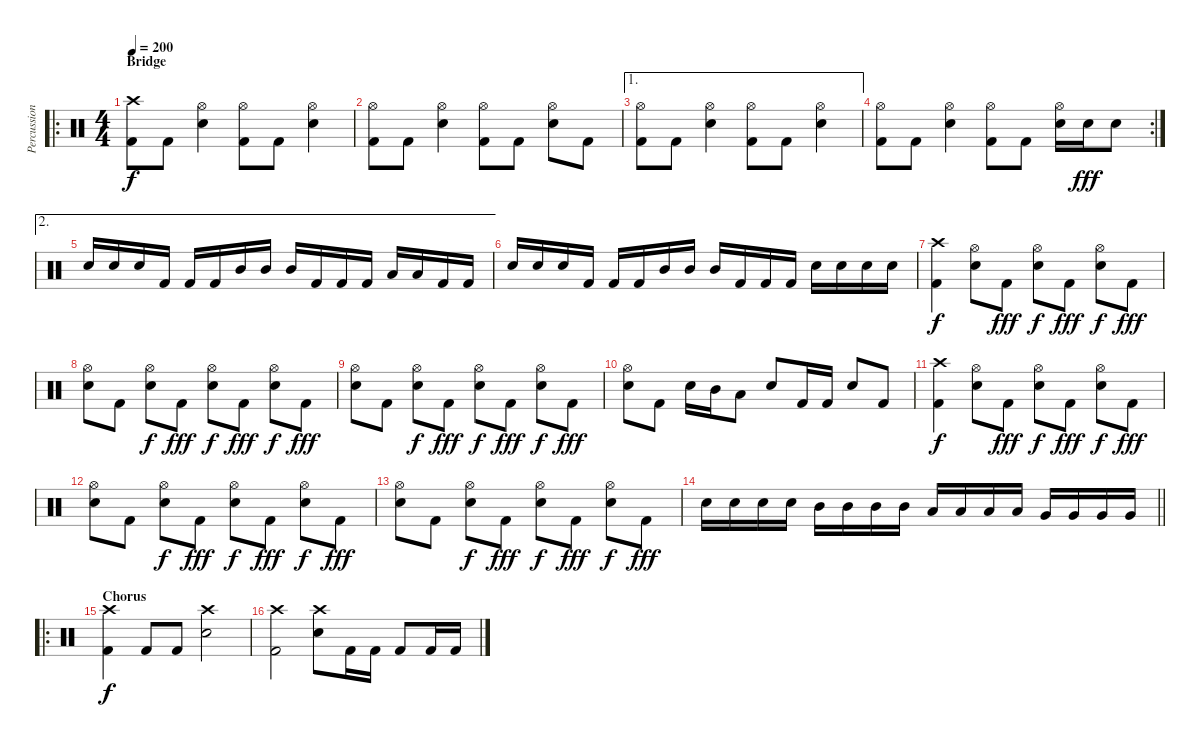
\track ("Percussion" "Percussion") {instrument percussion}
\staff {score}
\articulation defaults
\ro
\ts (4 4)
\section ("" "Bridge")
\tempo 200
\clef neutral
\ks c
("Crash high (hit)" "Kick (hit) 2").8{dy f} "Kick (hit) 2".8 ("Hi-Hat (open)" "Electric Snare (hit)").4 ("Hi-Hat (open)" "Kick (hit) 2").8 "Kick (hit) 2".8 ("Hi-Hat (open)" "Electric Snare (hit)").4 |
("Hi-Hat (open)" "Kick (hit) 2").8 "Kick (hit) 2".8 ("Hi-Hat (open)" "Electric Snare (hit)").4 ("Hi-Hat (open)" "Kick (hit) 2").8 "Kick (hit) 2".8 ("Hi-Hat (open)" "Electric Snare (hit)").8 "Kick (hit) 2".8 |
\ae 1
("Hi-Hat (open)" "Kick (hit) 2").8 "Kick (hit) 2".8 ("Hi-Hat (open)" "Electric Snare (hit)").4 ("Hi-Hat (open)" "Kick (hit) 2").8 "Kick (hit) 2".8 ("Hi-Hat (open)" "Electric Snare (hit)").4 |
\rc 2
("Hi-Hat (open)" "Kick (hit) 2").8 "Kick (hit) 2".8 ("Hi-Hat (open)" "Electric Snare (hit)").4 ("Hi-Hat (open)" "Kick (hit) 2").8 "Kick (hit) 2".8 ("Hi-Hat (open)" "Electric Snare (hit)").16 "Electric Snare (hit)".16{dy fff} "Electric Snare (hit)".8 |
\ae 2 "Electric Snare (hit)".16 "Electric Snare (hit)".16 "Electric Snare (hit)".16 "Kick (hit) 2".16 "Kick (hit) 2".16 "Kick (hit) 2".16 "Mid Tom (hit)".16 "Mid Tom (hit)".16 "Mid Tom (hit)".16 "Kick (hit) 2".16 "Kick (hit) 2".16 "Kick (hit) 2".16 "Low Tom (hit)".16 "Low Tom (hit)".16 "Kick (hit) 2".16 "Kick (hit) 2".16
|
"Electric Snare (hit)".16 "Electric Snare (hit)".16 "Electric Snare (hit)".16 "Kick (hit) 2".16 "Kick (hit) 2".16 "Kick (hit) 2".16 "Mid Tom (hit)".16 "Mid Tom (hit)".16 "Mid Tom (hit)".16 "Kick (hit) 2".16 "Kick (hit) 2".16 "Kick (hit) 2".16 "Electric Snare (hit)".16 "Electric Snare (hit)".16 "Electric Snare (hit)".16 "Electric Snare (hit)".16 |
("Crash high (hit)" "Kick (hit) 2").4{dy f} ("Hi-Hat (open)" "Electric Snare (hit)").8 "Kick (hit) 2".8{dy fff} ("Hi-Hat (open)" "Electric Snare (hit)").8{dy f} "Kick (hit) 2".8{dy fff} ("Hi-Hat (open)" "Electric Snare (hit)").8{dy f} "Kick (hit) 2".8{dy fff} |
("Hi-Hat (open)" "Electric Snare (hit)").8 "Kick (hit) 2".8 ("Hi-Hat (open)" "Electric Snare (hit)").8{dy f} "Kick (hit) 2".8{dy fff} ("Hi-Hat (open)" "Electric Snare (hit)").8{dy f} "Kick (hit) 2".8{dy fff} ("Hi-Hat (open)" "Electric Snare (hit)").8{dy f} "Kick (hit) 2".8{dy fff} |
("Hi-Hat (open)" "Electric Snare (hit)").8 "Kick (hit) 2".8 ("Hi-Hat (open)" "Electric Snare (hit)").8{dy f} "Kick (hit) 2".8{dy fff} ("Hi-Hat (open)" "Electric Snare (hit)").8{dy f} "Kick (hit) 2".8{dy fff} ("Hi-Hat (open)" "Electric Snare (hit)").8{dy f} "Kick (hit) 2".8{dy fff} |
("Hi-Hat (open)" "Electric Snare (hit)").8 "Kick (hit) 2".8 "Electric Snare (hit)".16 "Mid Tom (hit)".16 "Low Tom (hit)".8 "Electric Snare (hit)".8 "Kick (hit) 2".16 "Kick (hit) 2".16 "Electric Snare (hit)".8 "Kick (hit) 2".8 |
("Crash high (hit)" "Kick (hit) 2").4{dy f} ("Hi-Hat (open)" "Electric Snare (hit)").8 "Kick (hit) 2".8{dy fff} ("Hi-Hat (open)" "Electric Snare (hit)").8{dy f} "Kick (hit) 2".8{dy fff} ("Hi-Hat (open)" "Electric Snare (hit)").8{dy f} "Kick (hit) 2".8{dy fff} |
("Hi-Hat (open)" "Electric Snare (hit)").8 "Kick (hit) 2".8 ("Hi-Hat (open)" "Electric Snare (hit)").8{dy f} "Kick (hit) 2".8{dy fff} ("Hi-Hat (open)" "Electric Snare (hit)").8{dy f} "Kick (hit) 2".8{dy fff} ("Hi-Hat (open)" "Electric Snare (hit)").8{dy f} "Kick (hit) 2".8{dy fff} |
("Hi-Hat (open)" "Electric Snare (hit)").8 "Kick (hit) 2".8 ("Hi-Hat (open)" "Electric Snare (hit)").8{dy f} "Kick (hit) 2".8{dy fff} ("Hi-Hat (open)" "Electric Snare (hit)").8{dy f} "Kick (hit) 2".8{dy fff} ("Hi-Hat (open)" "Electric Snare (hit)").8{dy f} "Kick (hit) 2".8{dy fff} |
\barLineRight lightlight "Electric Snare (hit)".16 "Electric Snare (hit)".16 "Electric Snare (hit)".16 "Electric Snare (hit)".16 "Mid Tom (hit)".16 "Mid Tom (hit)".16 "Mid Tom (hit)".16 "Mid Tom (hit)".16 "Low Tom (hit)".16 "Low Tom (hit)".16 "Low Tom (hit)".16 "Low Tom (hit)".16 "Very Low Tom (hit)".16 "Very Low Tom (hit)".16 "Very Low Tom (hit)".16 "Very Low Tom (hit)".16
|
\ro
\section ("" "Chorus")
("Crash high (hit)" "Kick (hit) 2").4{dy f} "Kick (hit) 2".8 "Kick (hit) 2".8 ("Crash high (hit)" "Electric Snare (hit)").2 |
("Crash high (hit)" "Kick (hit) 2").2 ("Crash high (hit)" "Electric Snare (hit)").8 "Kick (hit) 2".16 "Kick (hit) 2".16 "Kick (hit) 2".8 "Kick (hit) 2".16 "Kick (hit) 2".16
